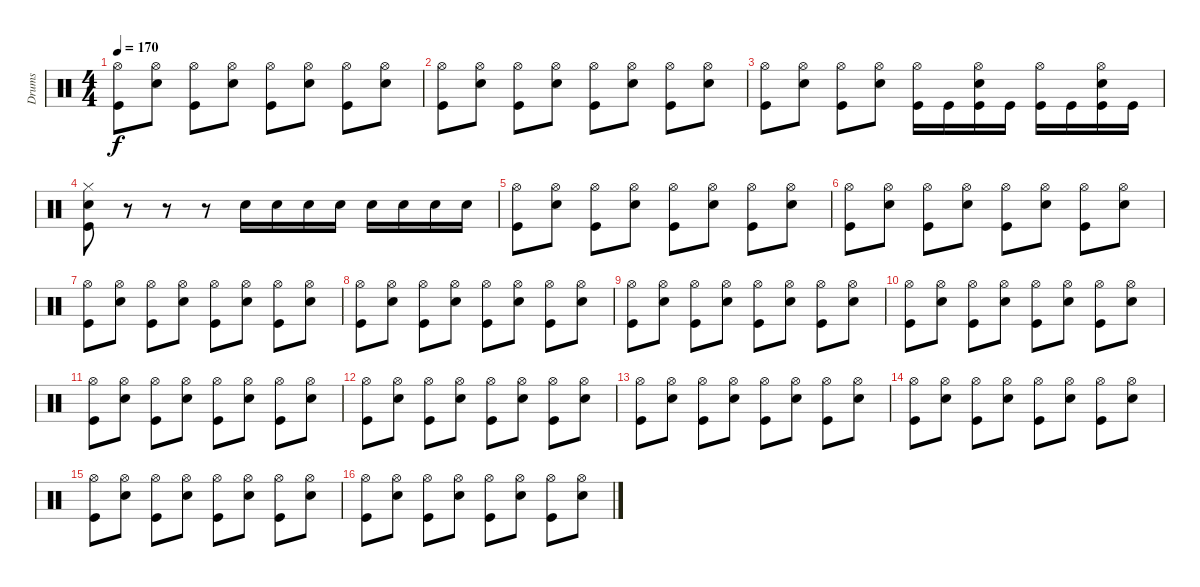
\track ("Drums" "Drums") {instrument percussion}
\staff {score}
\articulation defaults
\ts (4 4)
\tempo 170
\clef neutral
\ks c
("Hi-Hat (open)" "Kick (hit)").8{dy f} ("Hi-Hat (open)" "Snare (hit) 2").8 ("Hi-Hat (open)" "Kick (hit)").8 ("Hi-Hat (open)" "Snare (hit) 2").8 ("Hi-Hat (open)" "Kick (hit)").8 ("Hi-Hat (open)" "Snare (hit) 2").8 ("Hi-Hat (open)" "Kick (hit)").8 ("Hi-Hat (open)" "Snare (hit) 2").8 |
("Hi-Hat (open)" "Kick (hit)").8 ("Hi-Hat (open)" "Snare (hit) 2").8 ("Hi-Hat (open)" "Kick (hit)").8 ("Hi-Hat (open)" "Snare (hit) 2").8 ("Hi-Hat (open)" "Kick (hit)").8 ("Hi-Hat (open)" "Snare (hit) 2").8 ("Hi-Hat (open)" "Kick (hit)").8 ("Hi-Hat (open)" "Snare (hit) 2").8 |
("Hi-Hat (open)" "Kick (hit)").8 ("Hi-Hat (open)" "Snare (hit) 2").8 ("Hi-Hat (open)" "Kick (hit)").8 ("Hi-Hat (open)" "Snare (hit) 2").8 ("Hi-Hat (open)" "Kick (hit)").16 "Kick (hit)".16 ("Hi-Hat (open)" "Snare (hit) 2" "Kick (hit)").16 "Kick (hit)".16 ("Hi-Hat (open)" "Kick (hit)").16 "Kick (hit)".16 ("Hi-Hat (open)" "Snare (hit) 2" "Kick (hit)").16 "Kick (hit)".16 |
("Hi-Hat (closed)" "Snare (hit) 2" "Kick (hit)").8 r.8 r.8 r.8 "Snare (hit) 2".16 "Snare (hit) 2".16 "Snare (hit) 2".16 "Snare (hit) 2".16 "Snare (hit) 2".16 "Snare (hit) 2".16 "Snare (hit) 2".16 "Snare (hit) 2".16 |
("Hi-Hat (open)" "Kick (hit)").8 ("Hi-Hat (open)" "Snare (hit) 2").8 ("Hi-Hat (open)" "Kick (hit)").8 ("Hi-Hat (open)" "Snare (hit) 2").8 ("Hi-Hat (open)" "Kick (hit)").8 ("Hi-Hat (open)" "Snare (hit) 2").8 ("Hi-Hat (open)" "Kick (hit)").8 ("Hi-Hat (open)" "Snare (hit) 2").8 |
("Hi-Hat (open)" "Kick (hit)").8 ("Hi-Hat (open)" "Snare (hit) 2").8 ("Hi-Hat (open)" "Kick (hit)").8 ("Hi-Hat (open)" "Snare (hit) 2").8 ("Hi-Hat (open)" "Kick (hit)").8 ("Hi-Hat (open)" "Snare (hit) 2").8 ("Hi-Hat (open)" "Kick (hit)").8 ("Hi-Hat (open)" "Snare (hit) 2").8 |
("Hi-Hat (open)" "Kick (hit)").8 ("Hi-Hat (open)" "Snare (hit) 2").8 ("Hi-Hat (open)" "Kick (hit)").8 ("Hi-Hat (open)" "Snare (hit) 2").8 ("Hi-Hat (open)" "Kick (hit)").8 ("Hi-Hat (open)" "Snare (hit) 2").8 ("Hi-Hat (open)" "Kick (hit)").8 ("Hi-Hat (open)" "Snare (hit) 2").8 |
("Hi-Hat (open)" "Kick (hit)").8 ("Hi-Hat (open)" "Snare (hit) 2").8 ("Hi-Hat (open)" "Kick (hit)").8 ("Hi-Hat (open)" "Snare (hit) 2").8 ("Hi-Hat (open)" "Kick (hit)").8 ("Hi-Hat (open)" "Snare (hit) 2").8 ("Hi-Hat (open)" "Kick (hit)").8 ("Hi-Hat (open)" "Snare (hit) 2").8 |
("Hi-Hat (open)" "Kick (hit)").8 ("Hi-Hat (open)" "Snare (hit) 2").8 ("Hi-Hat (open)" "Kick (hit)").8 ("Hi-Hat (open)" "Snare (hit) 2").8 ("Hi-Hat (open)" "Kick (hit)").8 ("Hi-Hat (open)" "Snare (hit) 2").8 ("Hi-Hat (open)" "Kick (hit)").8 ("Hi-Hat (open)" "Snare (hit) 2").8 |
("Hi-Hat (open)" "Kick (hit)").8 ("Hi-Hat (open)" "Snare (hit) 2").8 ("Hi-Hat (open)" "Kick (hit)").8 ("Hi-Hat (open)" "Snare (hit) 2").8 ("Hi-Hat (open)" "Kick (hit)").8 ("Hi-Hat (open)" "Snare (hit) 2").8 ("Hi-Hat (open)" "Kick (hit)").8 ("Hi-Hat (open)" "Snare (hit) 2").8 |
("Hi-Hat (open)" "Kick (hit)").8 ("Hi-Hat (open)" "Snare (hit) 2").8 ("Hi-Hat (open)" "Kick (hit)").8 ("Hi-Hat (open)" "Snare (hit) 2").8 ("Hi-Hat (open)" "Kick (hit)").8 ("Hi-Hat (open)" "Snare (hit) 2").8 ("Hi-Hat (open)" "Kick (hit)").8 ("Hi-Hat (open)" "Snare (hit) 2").8 |
("Hi-Hat (open)" "Kick (hit)").8 ("Hi-Hat (open)" "Snare (hit) 2").8 ("Hi-Hat (open)" "Kick (hit)").8 ("Hi-Hat (open)" "Snare (hit) 2").8 ("Hi-Hat (open)" "Kick (hit)").8 ("Hi-Hat (open)" "Snare (hit) 2").8 ("Hi-Hat (open)" "Kick (hit)").8 ("Hi-Hat (open)" "Snare (hit) 2").8 |
("Hi-Hat (open)" "Kick (hit)").8 ("Hi-Hat (open)" "Snare (hit) 2").8 ("Hi-Hat (open)" "Kick (hit)").8 ("Hi-Hat (open)" "Snare (hit) 2").8 ("Hi-Hat (open)" "Kick (hit)").8 ("Hi-Hat (open)" "Snare (hit) 2").8 ("Hi-Hat (open)" "Kick (hit)").8 ("Hi-Hat (open)" "Snare (hit) 2").8 |
("Hi-Hat (open)" "Kick (hit)").8 ("Hi-Hat (open)" "Snare (hit) 2").8 ("Hi-Hat (open)" "Kick (hit)").8 ("Hi-Hat (open)" "Snare (hit) 2").8 ("Hi-Hat (open)" "Kick (hit)").8 ("Hi-Hat (open)" "Snare (hit) 2").8 ("Hi-Hat (open)" "Kick (hit)").8 ("Hi-Hat (open)" "Snare (hit) 2").8 |
("Hi-Hat (open)" "Kick (hit)").8 ("Hi-Hat (open)" "Snare (hit) 2").8 ("Hi-Hat (open)" "Kick (hit)").8 ("Hi-Hat (open)" "Snare (hit) 2").8 ("Hi-Hat (open)" "Kick (hit)").8 ("Hi-Hat (open)" "Snare (hit) 2").8 ("Hi-Hat (open)" "Kick (hit)").8 ("Hi-Hat (open)" "Snare (hit) 2").8 |
("Hi-Hat (open)" "Kick (hit)").8 ("Hi-Hat (open)" "Snare (hit) 2").8 ("Hi-Hat (open)" "Kick (hit)").8 ("Hi-Hat (open)" "Snare (hit) 2").8 ("Hi-Hat (open)" "Kick (hit)").8 ("Hi-Hat (open)" "Snare (hit) 2").8 ("Hi-Hat (open)" "Kick (hit)").8 ("Hi-Hat (open)" "Snare (hit) 2").8
